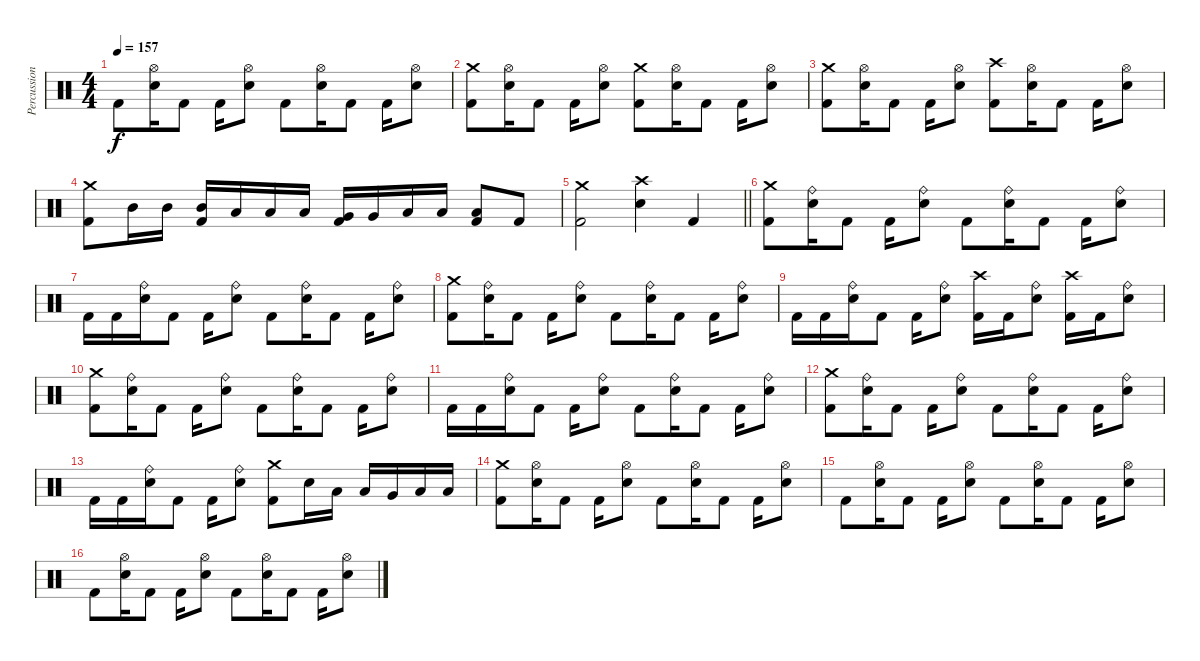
\track ("Percussion" "Percussion") {instrument percussion}
\staff {score}
\articulation defaults
\ts (4 4)
\tempo 157
\clef neutral
\ks c "Kick (hit) 2".8{dy f}
("Hi-Hat (open)" "Electric Snare (hit)").16 "Kick (hit) 2".8 "Kick (hit) 2".16 ("Hi-Hat (open)" "Electric Snare (hit)").8 "Kick (hit) 2".8 ("Hi-Hat (open)" "Electric Snare (hit)").16 "Kick (hit) 2".8 "Kick (hit) 2".16 ("Hi-Hat (open)" "Electric Snare (hit)").8 |
("Crash medium (hit)" "Kick (hit) 2").8 ("Hi-Hat (open)" "Electric Snare (hit)").16 "Kick (hit) 2".8 "Kick (hit) 2".16 ("Hi-Hat (open)" "Electric Snare (hit)").8 ("Crash medium (hit)" "Kick (hit) 2").8 ("Hi-Hat (open)" "Electric Snare (hit)").16 "Kick (hit) 2".8 "Kick (hit) 2".16 ("Hi-Hat (open)" "Electric Snare (hit)").8 |
("Crash medium (hit)" "Kick (hit) 2").8 ("Hi-Hat (open)" "Electric Snare (hit)").16 "Kick (hit) 2".8 "Kick (hit) 2".16 ("Hi-Hat (open)" "Electric Snare (hit)").8 ("Crash high (hit)" "Kick (hit) 2").8 ("Hi-Hat (open)" "Electric Snare (hit)").16 "Kick (hit) 2".8 "Kick (hit) 2".16 ("Hi-Hat (open)" "Electric Snare (hit)").8 |
("Crash medium (hit)" "Kick (hit) 2").8 "Mid Tom (hit)".16 "Mid Tom (hit)".16 ("Mid Tom (hit)" "Kick (hit) 2").16 "Low Tom (hit)".16 "Low Tom (hit)".16 "Low Tom (hit)".16 ("Very Low Tom (hit)" "Kick (hit) 2").16 "Very Low Tom (hit)".16 "Low Floor Tom (hit)".16 "Low Floor Tom (hit)".16 ("Low Floor Tom (hit)" "Kick (hit) 2").8 "Kick (hit) 2".8 |
\barLineRight lightlight
("Crash medium (hit)" "Kick (hit) 2").2 ("Crash high (hit)" "Electric Snare (hit)").4 "Kick (hit) 2".4 |
("Crash medium (hit)" "Kick (hit) 2").8 ("Ride (bell)" "Electric Snare (hit)").16 "Kick (hit) 2".8 "Kick (hit) 2".16 ("Ride (bell)" "Electric Snare (hit)").8 "Kick (hit) 2".8 ("Ride (bell)" "Electric Snare (hit)").16 "Kick (hit) 2".8 "Kick (hit) 2".16 ("Ride (bell)" "Electric Snare (hit)").8 |
"Kick (hit) 2".16 "Kick (hit) 2".16 ("Ride (bell)" "Electric Snare (hit)").16 "Kick (hit) 2".8 "Kick (hit) 2".16 ("Ride (bell)" "Electric Snare (hit)").8 "Kick (hit) 2".8 ("Ride (bell)" "Electric Snare (hit)").16 "Kick (hit) 2".8 "Kick (hit) 2".16 ("Ride (bell)" "Electric Snare (hit)").8 |
("Crash medium (hit)" "Kick (hit) 2").8 ("Ride (bell)" "Electric Snare (hit)").16 "Kick (hit) 2".8 "Kick (hit) 2".16 ("Ride (bell)" "Electric Snare (hit)").8 "Kick (hit) 2".8 ("Ride (bell)" "Electric Snare (hit)").16 "Kick (hit) 2".8 "Kick (hit) 2".16 ("Ride (bell)" "Electric Snare (hit)").8 |
"Kick (hit) 2".16 "Kick (hit) 2".16 ("Ride (bell)" "Electric Snare (hit)").16 "Kick (hit) 2".8 "Kick (hit) 2".16 ("Ride (bell)" "Electric Snare (hit)").8 ("Crash high (hit)" "Kick (hit) 2").16 "Kick (hit) 2".16 ("Ride (bell)" "Electric Snare (hit)").8 ("Crash high (hit)" "Kick (hit) 2").16 "Kick (hit) 2".16 ("Ride (bell)" "Electric Snare (hit)").8 |
("Crash medium (hit)" "Kick (hit) 2").8 ("Ride (bell)" "Electric Snare (hit)").16 "Kick (hit) 2".8 "Kick (hit) 2".16 ("Ride (bell)" "Electric Snare (hit)").8 "Kick (hit) 2".8 ("Ride (bell)" "Electric Snare (hit)").16 "Kick (hit) 2".8 "Kick (hit) 2".16 ("Ride (bell)" "Electric Snare (hit)").8 |
"Kick (hit) 2".16 "Kick (hit) 2".16 ("Ride (bell)" "Electric Snare (hit)").16 "Kick (hit) 2".8 "Kick (hit) 2".16 ("Ride (bell)" "Electric Snare (hit)").8 "Kick (hit) 2".8 ("Ride (bell)" "Electric Snare (hit)").16 "Kick (hit) 2".8 "Kick (hit) 2".16 ("Ride (bell)" "Electric Snare (hit)").8 |
("Crash medium (hit)" "Kick (hit) 2").8 ("Ride (bell)" "Electric Snare (hit)").16 "Kick (hit) 2".8 "Kick (hit) 2".16 ("Ride (bell)" "Electric Snare (hit)").8 "Kick (hit) 2".8 ("Ride (bell)" "Electric Snare (hit)").16 "Kick (hit) 2".8 "Kick (hit) 2".16 ("Ride (bell)" "Electric Snare (hit)").8 |
"Kick (hit) 2".16 "Kick (hit) 2".16 ("Ride (bell)" "Electric Snare (hit)").16 "Kick (hit) 2".8 "Kick (hit) 2".16 ("Ride (bell)" "Electric Snare (hit)").8 ("Crash medium (hit)" "Kick (hit) 2").8 "Electric Snare (hit)".16 "Low Tom (hit)".16 "Low Tom (hit)".16 "Very Low Tom (hit)".16 "Low Floor Tom (hit)".16 "Low Floor Tom (hit)".16 |
("Crash medium (hit)" "Kick (hit) 2").8 ("Hi-Hat (open)" "Electric Snare (hit)").16 "Kick (hit) 2".8 "Kick (hit) 2".16 ("Hi-Hat (open)" "Electric Snare (hit)").8 "Kick (hit) 2".8 ("Hi-Hat (open)" "Electric Snare (hit)").16 "Kick (hit) 2".8 "Kick (hit) 2".16 ("Hi-Hat (open)" "Electric Snare (hit)").8 |
"Kick (hit) 2".8 ("Hi-Hat (open)" "Electric Snare (hit)").16 "Kick (hit) 2".8 "Kick (hit) 2".16 ("Hi-Hat (open)" "Electric Snare (hit)").8 "Kick (hit) 2".8 ("Hi-Hat (open)" "Electric Snare (hit)").16 "Kick (hit) 2".8 "Kick (hit) 2".16 ("Hi-Hat (open)" "Electric Snare (hit)").8 |
"Kick (hit) 2".8 ("Hi-Hat (open)" "Electric Snare (hit)").16 "Kick (hit) 2".8 "Kick (hit) 2".16 ("Hi-Hat (open)" "Electric Snare (hit)").8 "Kick (hit) 2".8 ("Hi-Hat (open)" "Electric Snare (hit)").16 "Kick (hit) 2".8 "Kick (hit) 2".16 ("Hi-Hat (open)" "Electric Snare (hit)").8
